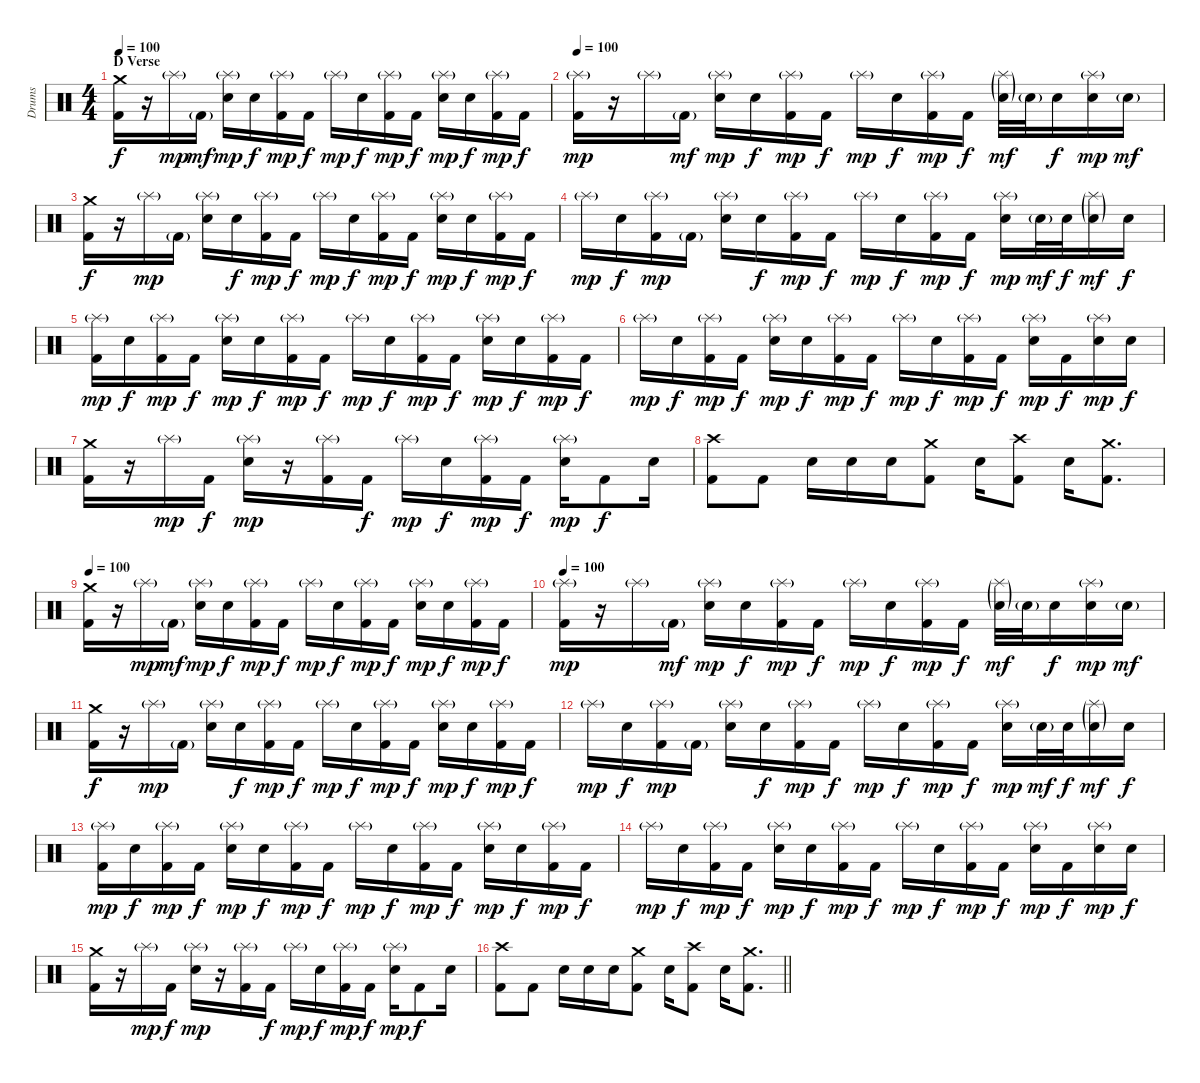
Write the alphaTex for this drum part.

\track ("Drums" "Drums") {instrument percussion}
\staff {score}
\articulation defaults
\ts (4 4)
\section ("" "D Verse")
\tempo 100
\clef neutral
\ks c
("Crash medium (hit)" "Kick (hit) 2").16{dy f} r.16 "Splash (hit)"{g}.16{dy mp} "Kick (hit) 2"{g}.16{dy mf} ("Splash (hit)"{g} "Electric Snare (hit)").16{dy mp} "Electric Snare (hit)".16{dy f} ("Splash (hit)"{g} "Kick (hit) 2").16{dy mp} "Kick (hit) 2".16{dy f} "Splash (hit)"{g}.16{dy mp} "Electric Snare (hit)".16{dy f} ("Splash (hit)"{g} "Kick (hit) 2").16{dy mp} "Kick (hit) 2".16{dy f} ("Splash (hit)"{g} "Electric Snare (hit)").16{dy mp} "Electric Snare (hit)".16{dy f} ("Splash (hit)"{g} "Kick (hit) 2").16{dy mp} "Kick (hit) 2".16{dy f} |
\tempo 100
("Splash (hit)"{g} "Kick (hit) 2").16{dy mp} r.16 "Splash (hit)"{g}.16 "Kick (hit) 2"{g}.16{dy mf} ("Splash (hit)"{g} "Electric Snare (hit)").16{dy mp} "Electric Snare (hit)".16{dy f} ("Splash (hit)"{g} "Kick (hit) 2").16{dy mp} "Kick (hit) 2".16{dy f} "Splash (hit)"{g}.16{dy mp} "Electric Snare (hit)".16{dy f} ("Splash (hit)"{g} "Kick (hit) 2").16{dy mp} "Kick (hit) 2".16{dy f} ("Splash (hit)"{g} "Electric Snare (hit)"{g}).32{dy mf} "Electric Snare (hit)"{g}.32 "Electric Snare (hit)".16{dy f} ("Splash (hit)"{g} "Electric Snare (hit)").16{dy mp} "Electric Snare (hit)"{g}.16{dy mf} |
("Crash medium (hit)" "Kick (hit) 2").16{dy f} r.16 "Splash (hit)"{g}.16{dy mp} "Kick (hit) 2"{g}.16 ("Splash (hit)"{g} "Electric Snare (hit)").16 "Electric Snare (hit)".16{dy f} ("Splash (hit)"{g} "Kick (hit) 2").16{dy mp} "Kick (hit) 2".16{dy f} "Splash (hit)"{g}.16{dy mp} "Electric Snare (hit)".16{dy f} ("Splash (hit)"{g} "Kick (hit) 2").16{dy mp} "Kick (hit) 2".16{dy f} ("Splash (hit)"{g} "Electric Snare (hit)").16{dy mp} "Electric Snare (hit)".16{dy f} ("Splash (hit)"{g} "Kick (hit) 2").16{dy mp} "Kick (hit) 2".16{dy f} |
"Splash (hit)"{g}.16{dy mp} "Electric Snare (hit)".16{dy f} ("Splash (hit)"{g} "Kick (hit) 2").16{dy mp} "Kick (hit) 2"{g}.16 ("Splash (hit)"{g} "Electric Snare (hit)").16 "Electric Snare (hit)".16{dy f} ("Splash (hit)"{g} "Kick (hit) 2").16{dy mp} "Kick (hit) 2".16{dy f} "Splash (hit)"{g}.16{dy mp} "Electric Snare (hit)".16{dy f} ("Splash (hit)"{g} "Kick (hit) 2").16{dy mp} "Kick (hit) 2".16{dy f} ("Splash (hit)"{g} "Electric Snare (hit)").16{dy mp} "Electric Snare (hit)"{g}.32{dy mf} "Electric Snare (hit)".32{dy f} ("Splash (hit)"{g} "Electric Snare (hit)"{g}).16{dy mf} "Electric Snare (hit)".16{dy f} |
("Splash (hit)"{g} "Kick (hit) 2").16{dy mp} "Electric Snare (hit)".16{dy f} ("Splash (hit)"{g} "Kick (hit) 2").16{dy mp} "Kick (hit) 2".16{dy f} ("Splash (hit)"{g} "Electric Snare (hit)").16{dy mp} "Electric Snare (hit)".16{dy f} ("Splash (hit)"{g} "Kick (hit) 2").16{dy mp} "Kick (hit) 2".16{dy f} "Splash (hit)"{g}.16{dy mp} "Electric Snare (hit)".16{dy f} ("Splash (hit)"{g} "Kick (hit) 2").16{dy mp} "Kick (hit) 2".16{dy f} ("Splash (hit)"{g} "Electric Snare (hit)").16{dy mp} "Electric Snare (hit)".16{dy f} ("Splash (hit)"{g} "Kick (hit) 2").16{dy mp} "Kick (hit) 2".16{dy f} |
"Splash (hit)"{g}.16{dy mp} "Electric Snare (hit)".16{dy f} ("Splash (hit)"{g} "Kick (hit) 2").16{dy mp} "Kick (hit) 2".16{dy f} ("Splash (hit)"{g} "Electric Snare (hit)").16{dy mp} "Electric Snare (hit)".16{dy f} ("Splash (hit)"{g} "Kick (hit) 2").16{dy mp} "Kick (hit) 2".16{dy f} "Splash (hit)"{g}.16{dy mp} "Electric Snare (hit)".16{dy f} ("Splash (hit)"{g} "Kick (hit) 2").16{dy mp} "Kick (hit) 2".16{dy f} ("Splash (hit)"{g} "Electric Snare (hit)").16{dy mp} "Kick (hit) 2".16{dy f} ("Splash (hit)"{g} "Electric Snare (hit)").16{dy mp} "Electric Snare (hit)".16{dy f} |
("Crash medium (hit)" "Kick (hit) 2").16 r.16 "Splash (hit)"{g}.16{dy mp} "Kick (hit) 2".16{dy f} ("Splash (hit)"{g} "Electric Snare (hit)").16{dy mp} r.16 ("Splash (hit)"{g} "Kick (hit) 2").16 "Kick (hit) 2".16{dy f} "Splash (hit)"{g}.16{dy mp} "Electric Snare (hit)".16{dy f} ("Splash (hit)"{g} "Kick (hit) 2").16{dy mp} "Kick (hit) 2".16{dy f} ("Splash (hit)"{g} "Electric Snare (hit)").16{dy mp} "Kick (hit) 2".8{dy f} "Electric Snare (hit)".16 |
("Crash high (hit)" "Kick (hit) 2").8 "Kick (hit) 2".8 "Electric Snare (hit)".16 "Electric Snare (hit)".16 "Electric Snare (hit)".16 ("Crash medium (hit)" "Kick (hit) 2").8 "Electric Snare (hit)".16 ("Crash high (hit)" "Kick (hit) 2").8 "Electric Snare (hit)".16 ("Crash medium (hit)" "Kick (hit) 2").8{d} |
\tempo 100
("Crash medium (hit)" "Kick (hit) 2").16 r.16 "Splash (hit)"{g}.16{dy mp} "Kick (hit) 2"{g}.16{dy mf} ("Splash (hit)"{g} "Electric Snare (hit)").16{dy mp} "Electric Snare (hit)".16{dy f} ("Splash (hit)"{g} "Kick (hit) 2").16{dy mp} "Kick (hit) 2".16{dy f} "Splash (hit)"{g}.16{dy mp} "Electric Snare (hit)".16{dy f} ("Splash (hit)"{g} "Kick (hit) 2").16{dy mp} "Kick (hit) 2".16{dy f} ("Splash (hit)"{g} "Electric Snare (hit)").16{dy mp} "Electric Snare (hit)".16{dy f} ("Splash (hit)"{g} "Kick (hit) 2").16{dy mp} "Kick (hit) 2".16{dy f} |
\tempo 100
("Splash (hit)"{g} "Kick (hit) 2").16{dy mp} r.16 "Splash (hit)"{g}.16 "Kick (hit) 2"{g}.16{dy mf} ("Splash (hit)"{g} "Electric Snare (hit)").16{dy mp} "Electric Snare (hit)".16{dy f} ("Splash (hit)"{g} "Kick (hit) 2").16{dy mp} "Kick (hit) 2".16{dy f} "Splash (hit)"{g}.16{dy mp} "Electric Snare (hit)".16{dy f} ("Splash (hit)"{g} "Kick (hit) 2").16{dy mp} "Kick (hit) 2".16{dy f} ("Splash (hit)"{g} "Electric Snare (hit)"{g}).32{dy mf} "Electric Snare (hit)"{g}.32 "Electric Snare (hit)".16{dy f} ("Splash (hit)"{g} "Electric Snare (hit)").16{dy mp} "Electric Snare (hit)"{g}.16{dy mf} |
("Crash medium (hit)" "Kick (hit) 2").16{dy f} r.16 "Splash (hit)"{g}.16{dy mp} "Kick (hit) 2"{g}.16 ("Splash (hit)"{g} "Electric Snare (hit)").16 "Electric Snare (hit)".16{dy f} ("Splash (hit)"{g} "Kick (hit) 2").16{dy mp} "Kick (hit) 2".16{dy f} "Splash (hit)"{g}.16{dy mp} "Electric Snare (hit)".16{dy f} ("Splash (hit)"{g} "Kick (hit) 2").16{dy mp} "Kick (hit) 2".16{dy f} ("Splash (hit)"{g} "Electric Snare (hit)").16{dy mp} "Electric Snare (hit)".16{dy f} ("Splash (hit)"{g} "Kick (hit) 2").16{dy mp} "Kick (hit) 2".16{dy f} |
"Splash (hit)"{g}.16{dy mp} "Electric Snare (hit)".16{dy f} ("Splash (hit)"{g} "Kick (hit) 2").16{dy mp} "Kick (hit) 2"{g}.16 ("Splash (hit)"{g} "Electric Snare (hit)").16 "Electric Snare (hit)".16{dy f} ("Splash (hit)"{g} "Kick (hit) 2").16{dy mp} "Kick (hit) 2".16{dy f} "Splash (hit)"{g}.16{dy mp} "Electric Snare (hit)".16{dy f} ("Splash (hit)"{g} "Kick (hit) 2").16{dy mp} "Kick (hit) 2".16{dy f} ("Splash (hit)"{g} "Electric Snare (hit)").16{dy mp} "Electric Snare (hit)"{g}.32{dy mf} "Electric Snare (hit)".32{dy f} ("Splash (hit)"{g} "Electric Snare (hit)"{g}).16{dy mf} "Electric Snare (hit)".16{dy f} |
("Splash (hit)"{g} "Kick (hit) 2").16{dy mp} "Electric Snare (hit)".16{dy f} ("Splash (hit)"{g} "Kick (hit) 2").16{dy mp} "Kick (hit) 2".16{dy f} ("Splash (hit)"{g} "Electric Snare (hit)").16{dy mp} "Electric Snare (hit)".16{dy f} ("Splash (hit)"{g} "Kick (hit) 2").16{dy mp} "Kick (hit) 2".16{dy f} "Splash (hit)"{g}.16{dy mp} "Electric Snare (hit)".16{dy f} ("Splash (hit)"{g} "Kick (hit) 2").16{dy mp} "Kick (hit) 2".16{dy f} ("Splash (hit)"{g} "Electric Snare (hit)").16{dy mp} "Electric Snare (hit)".16{dy f} ("Splash (hit)"{g} "Kick (hit) 2").16{dy mp} "Kick (hit) 2".16{dy f} |
"Splash (hit)"{g}.16{dy mp} "Electric Snare (hit)".16{dy f} ("Splash (hit)"{g} "Kick (hit) 2").16{dy mp} "Kick (hit) 2".16{dy f} ("Splash (hit)"{g} "Electric Snare (hit)").16{dy mp} "Electric Snare (hit)".16{dy f} ("Splash (hit)"{g} "Kick (hit) 2").16{dy mp} "Kick (hit) 2".16{dy f} "Splash (hit)"{g}.16{dy mp} "Electric Snare (hit)".16{dy f} ("Splash (hit)"{g} "Kick (hit) 2").16{dy mp} "Kick (hit) 2".16{dy f} ("Splash (hit)"{g} "Electric Snare (hit)").16{dy mp} "Kick (hit) 2".16{dy f} ("Splash (hit)"{g} "Electric Snare (hit)").16{dy mp} "Electric Snare (hit)".16{dy f} |
("Crash medium (hit)" "Kick (hit) 2").16 r.16 "Splash (hit)"{g}.16{dy mp} "Kick (hit) 2".16{dy f} ("Splash (hit)"{g} "Electric Snare (hit)").16{dy mp} r.16 ("Splash (hit)"{g} "Kick (hit) 2").16 "Kick (hit) 2".16{dy f} "Splash (hit)"{g}.16{dy mp} "Electric Snare (hit)".16{dy f} ("Splash (hit)"{g} "Kick (hit) 2").16{dy mp} "Kick (hit) 2".16{dy f} ("Splash (hit)"{g} "Electric Snare (hit)").16{dy mp} "Kick (hit) 2".8{dy f} "Electric Snare (hit)".16 |
\barLineRight lightlight
("Crash high (hit)" "Kick (hit) 2").8 "Kick (hit) 2".8 "Electric Snare (hit)".16 "Electric Snare (hit)".16 "Electric Snare (hit)".16 ("Crash medium (hit)" "Kick (hit) 2").8 "Electric Snare (hit)".16 ("Crash high (hit)" "Kick (hit) 2").8 "Electric Snare (hit)".16 ("Crash medium (hit)" "Kick (hit) 2").8{d}
